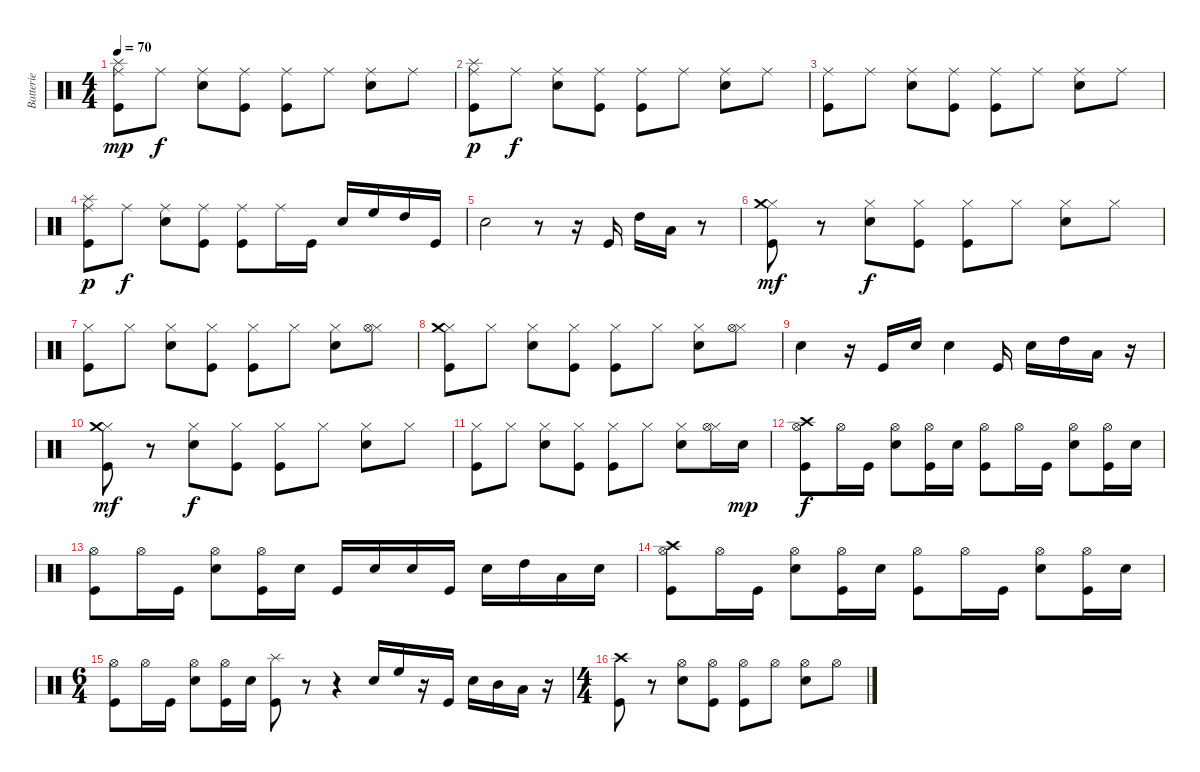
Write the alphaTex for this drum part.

\track ("Batterie" "Batterie") {instrument percussion}
\staff {score}
\articulation defaults
\ts (4 4)
\tempo 70
\clef neutral
\ks c
("Ride (middle)" "Splash (hit)" "Kick (hit)").8{dy mp} "Ride (middle)".8{dy f} ("Ride (middle)" "Snare (hit) 2").8 ("Ride (middle)" "Kick (hit)").8 ("Ride (middle)" "Kick (hit)").8 "Ride (middle)".8 ("Ride (middle)" "Snare (hit) 2").8 "Ride (middle)".8 |
("Ride (middle)" "Splash (hit)" "Kick (hit)").8{dy p} "Ride (middle)".8{dy f} ("Ride (middle)" "Snare (hit) 2").8 ("Ride (middle)" "Kick (hit)").8 ("Ride (middle)" "Kick (hit)").8 "Ride (middle)".8 ("Ride (middle)" "Snare (hit) 2").8 "Ride (middle)".8 |
("Ride (middle)" "Kick (hit)").8 "Ride (middle)".8 ("Ride (middle)" "Snare (hit) 2").8 ("Ride (middle)" "Kick (hit)").8 ("Ride (middle)" "Kick (hit)").8 "Ride (middle)".8 ("Ride (middle)" "Snare (hit) 2").8 "Ride (middle)".8 |
("Ride (middle)" "Splash (hit)" "Kick (hit)").8{dy p} "Ride (middle)".8{dy f} ("Ride (middle)" "Snare (hit) 2").8 ("Ride (middle)" "Kick (hit)").8 ("Ride (middle)" "Kick (hit)").8 "Ride (middle)".16 "Kick (hit)".16 "Snare (hit) 2".16 "High Floor Tom (hit)".16 "High Tom (hit)".16 "Kick (hit)".16 |
"Snare (hit) 2".2 r.8 r.16 "Kick (hit)".16 "High Tom (hit)".16 "Low Tom (hit)".16 r.8 |
("Hi-Hat (closed)" "Crash medium (hit)" "Kick (hit)").8{dy mf} r.8 ("Hi-Hat (closed)" "Snare (hit) 2").8{dy f} ("Hi-Hat (closed)" "Kick (hit)").8 ("Hi-Hat (closed)" "Kick (hit)").8 "Hi-Hat (closed)".8 ("Hi-Hat (closed)" "Snare (hit) 2").8 "Hi-Hat (closed)".8 |
("Hi-Hat (closed)" "Kick (hit)").8 "Hi-Hat (closed)".8 ("Hi-Hat (closed)" "Snare (hit) 2").8 ("Hi-Hat (closed)" "Kick (hit)").8 ("Hi-Hat (closed)" "Kick (hit)").8 "Hi-Hat (closed)".8 ("Hi-Hat (closed)" "Snare (hit) 2").8 ("Hi-Hat (closed)" "Hi-Hat (open)").8 |
("Hi-Hat (closed)" "Crash medium (hit)" "Kick (hit)").8 "Hi-Hat (closed)".8 ("Hi-Hat (closed)" "Snare (hit) 2").8 ("Hi-Hat (closed)" "Kick (hit)").8 ("Hi-Hat (closed)" "Kick (hit)").8 "Hi-Hat (closed)".8 ("Hi-Hat (closed)" "Snare (hit) 2").8 ("Hi-Hat (closed)" "Hi-Hat (open)").8 |
"Snare (hit) 2".4 r.16 "Kick (hit)".16 "Snare (hit) 2".16 "Snare (hit) 2".4 "Kick (hit)".16 "Snare (hit) 2".16 "High Tom (hit)".16 "Low Tom (hit)".16 r.16 |
("Hi-Hat (closed)" "Crash medium (hit)" "Kick (hit)").8{dy mf} r.8 ("Hi-Hat (closed)" "Snare (hit) 2").8{dy f} ("Hi-Hat (closed)" "Kick (hit)").8 ("Hi-Hat (closed)" "Kick (hit)").8 "Hi-Hat (closed)".8 ("Hi-Hat (closed)" "Snare (hit) 2").8 "Hi-Hat (closed)".8 |
("Hi-Hat (closed)" "Kick (hit)").8 "Hi-Hat (closed)".8 ("Hi-Hat (closed)" "Snare (hit) 2").8 ("Hi-Hat (closed)" "Kick (hit)").8 ("Hi-Hat (closed)" "Kick (hit)").8 "Hi-Hat (closed)".8 ("Hi-Hat (closed)" "Snare (hit) 2").8 ("Hi-Hat (closed)" "Hi-Hat (open)").16 "Snare (hit) 2".16{dy mp} |
("Hi-Hat (open)" "Crash high (hit)" "Kick (hit)").8{dy f} "Hi-Hat (open)".16 "Kick (hit)".16 ("Hi-Hat (open)" "Snare (hit) 2").8 ("Hi-Hat (open)" "Kick (hit)").16 "Snare (hit) 2".16 ("Hi-Hat (open)" "Kick (hit)").8 "Hi-Hat (open)".16 "Kick (hit)".16 ("Hi-Hat (open)" "Snare (hit) 2").8 ("Hi-Hat (open)" "Kick (hit)").16 "Snare (hit) 2".16 |
("Hi-Hat (open)" "Kick (hit)").8 "Hi-Hat (open)".16 "Kick (hit)".16 ("Hi-Hat (open)" "Snare (hit) 2").8 ("Hi-Hat (open)" "Kick (hit)").16 "Snare (hit) 2".16 "Kick (hit)".16 "Snare (hit) 2".16 "Snare (hit) 2".16 "Kick (hit)".16 "Snare (hit) 2".16 "High Tom (hit)".16 "Low Tom (hit)".16 "Snare (hit) 2".16 |
("Hi-Hat (open)" "Crash high (hit)" "Kick (hit)").8 "Hi-Hat (open)".16 "Kick (hit)".16 ("Hi-Hat (open)" "Snare (hit) 2").8 ("Hi-Hat (open)" "Kick (hit)").16 "Snare (hit) 2".16 ("Hi-Hat (open)" "Kick (hit)").8 "Hi-Hat (open)".16 "Kick (hit)".16 ("Hi-Hat (open)" "Snare (hit) 2").8 ("Hi-Hat (open)" "Kick (hit)").16 "Snare (hit) 2".16 |
\ts (6 4)
("Hi-Hat (open)" "Kick (hit)").8 "Hi-Hat (open)".16 "Kick (hit)".16 ("Hi-Hat (open)" "Snare (hit) 2").8 ("Hi-Hat (open)" "Kick (hit)").16 "Snare (hit) 2".16 ("Splash (hit)" "Kick (hit)").8 r.8 r.4 "Snare (hit) 2".16 "High Floor Tom (hit)".16 r.16 "Kick (hit)".16 "Snare (hit) 2".16 "Mid Tom (hit)".16 "Low Tom (hit)".16 r.16 |
\ts (4 4)
("Crash high (hit)" "Kick (hit)").8 r.8 ("Hi-Hat (open)" "Snare (hit) 2").8 ("Hi-Hat (open)" "Kick (hit)").8 ("Hi-Hat (open)" "Kick (hit)").8 "Hi-Hat (open)".8 ("Hi-Hat (open)" "Snare (hit) 2").8 "Hi-Hat (open)".8
